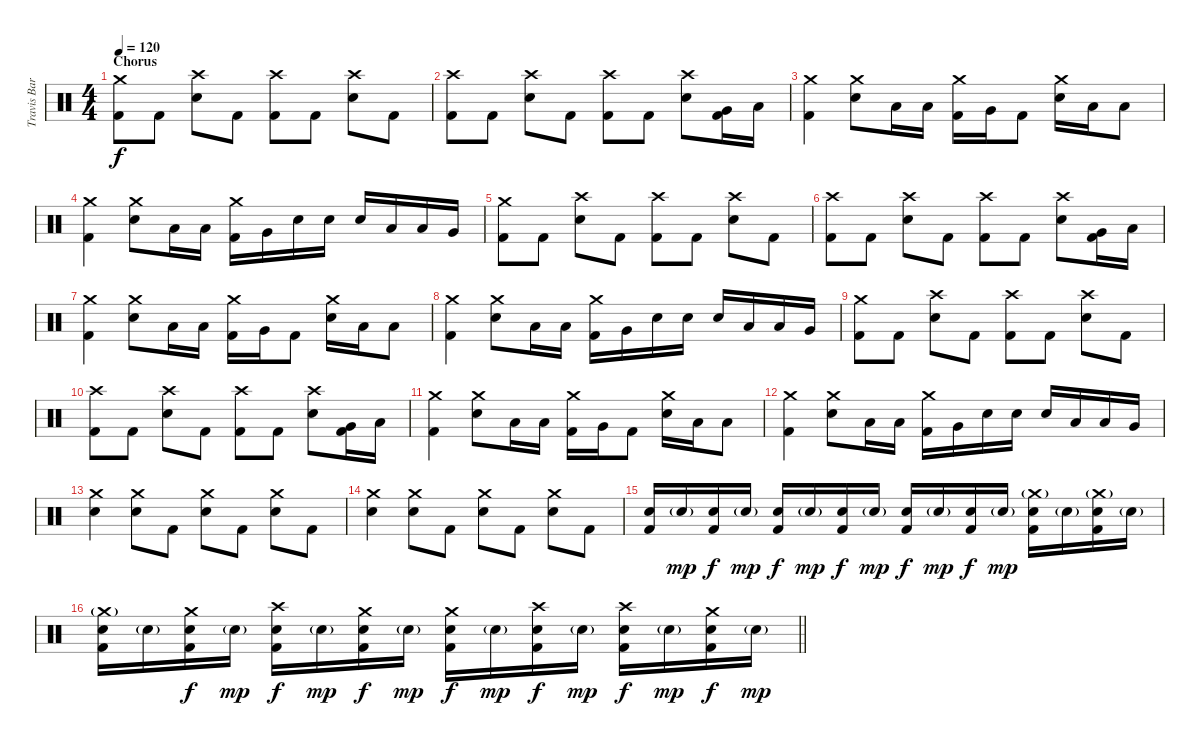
\track ("Travis Barker - Drums" "Travis Bar") {instrument percussion}
\staff {score}
\articulation defaults
\ts (4 4)
\section ("" "Chorus")
\tempo 120
\clef neutral
\ks c
("Crash medium (hit)" "Kick (hit) 2").8{dy f} "Kick (hit) 2".8 ("Crash high (hit)" "Electric Snare (hit)").8 "Kick (hit) 2".8 ("Crash high (hit)" "Kick (hit) 2").8 "Kick (hit) 2".8 ("Crash high (hit)" "Electric Snare (hit)").8 "Kick (hit) 2".8 |
("Crash high (hit)" "Kick (hit) 2").8 "Kick (hit) 2".8 ("Crash high (hit)" "Electric Snare (hit)").8 "Kick (hit) 2".8 ("Crash high (hit)" "Kick (hit) 2").8 "Kick (hit) 2".8 ("Crash high (hit)" "Electric Snare (hit)").8 ("Very Low Tom (hit)" "Kick (hit) 2").16 "Low Floor Tom (hit)".16 |
("Crash medium (hit)" "Kick (hit) 2").4 ("Crash medium (hit)" "Electric Snare (hit)").8 "Low Tom (hit)".16 "Low Tom (hit)".16 ("Crash medium (hit)" "Kick (hit) 2").16 "Very Low Tom (hit)".16 "Kick (hit) 2".8 ("Crash medium (hit)" "Electric Snare (hit)").16 "Low Tom (hit)".16 "Low Tom (hit)".8 |
("Crash medium (hit)" "Kick (hit) 2").4 ("Crash medium (hit)" "Electric Snare (hit)").8 "Low Tom (hit)".16 "Low Tom (hit)".16 ("Crash medium (hit)" "Kick (hit) 2").16 "Very Low Tom (hit)".16 "Electric Snare (hit)".16 "Electric Snare (hit)".16 "Electric Snare (hit)".16 "Low Tom (hit)".16 "Low Tom (hit)".16 "Very Low Tom (hit)".16 |
("Crash medium (hit)" "Kick (hit) 2").8 "Kick (hit) 2".8 ("Crash high (hit)" "Electric Snare (hit)").8 "Kick (hit) 2".8 ("Crash high (hit)" "Kick (hit) 2").8 "Kick (hit) 2".8 ("Crash high (hit)" "Electric Snare (hit)").8 "Kick (hit) 2".8 |
("Crash high (hit)" "Kick (hit) 2").8 "Kick (hit) 2".8 ("Crash high (hit)" "Electric Snare (hit)").8 "Kick (hit) 2".8 ("Crash high (hit)" "Kick (hit) 2").8 "Kick (hit) 2".8 ("Crash high (hit)" "Electric Snare (hit)").8 ("Very Low Tom (hit)" "Kick (hit) 2").16 "Low Floor Tom (hit)".16 |
("Crash medium (hit)" "Kick (hit) 2").4 ("Crash medium (hit)" "Electric Snare (hit)").8 "Low Tom (hit)".16 "Low Tom (hit)".16 ("Crash medium (hit)" "Kick (hit) 2").16 "Very Low Tom (hit)".16 "Kick (hit) 2".8 ("Crash medium (hit)" "Electric Snare (hit)").16 "Low Tom (hit)".16 "Low Tom (hit)".8 |
("Crash medium (hit)" "Kick (hit) 2").4 ("Crash medium (hit)" "Electric Snare (hit)").8 "Low Tom (hit)".16 "Low Tom (hit)".16 ("Crash medium (hit)" "Kick (hit) 2").16 "Very Low Tom (hit)".16 "Electric Snare (hit)".16 "Electric Snare (hit)".16 "Electric Snare (hit)".16 "Low Tom (hit)".16 "Low Tom (hit)".16 "Very Low Tom (hit)".16 |
("Crash medium (hit)" "Kick (hit) 2").8 "Kick (hit) 2".8 ("Crash high (hit)" "Electric Snare (hit)").8 "Kick (hit) 2".8 ("Crash high (hit)" "Kick (hit) 2").8 "Kick (hit) 2".8 ("Crash high (hit)" "Electric Snare (hit)").8 "Kick (hit) 2".8 |
("Crash high (hit)" "Kick (hit) 2").8 "Kick (hit) 2".8 ("Crash high (hit)" "Electric Snare (hit)").8 "Kick (hit) 2".8 ("Crash high (hit)" "Kick (hit) 2").8 "Kick (hit) 2".8 ("Crash high (hit)" "Electric Snare (hit)").8 ("Very Low Tom (hit)" "Kick (hit) 2").16 "Low Floor Tom (hit)".16 |
("Crash medium (hit)" "Kick (hit) 2").4 ("Crash medium (hit)" "Electric Snare (hit)").8 "Low Tom (hit)".16 "Low Tom (hit)".16 ("Crash medium (hit)" "Kick (hit) 2").16 "Very Low Tom (hit)".16 "Kick (hit) 2".8 ("Crash medium (hit)" "Electric Snare (hit)").16 "Low Tom (hit)".16 "Low Tom (hit)".8 |
("Crash medium (hit)" "Kick (hit) 2").4 ("Crash medium (hit)" "Electric Snare (hit)").8 "Low Tom (hit)".16 "Low Tom (hit)".16 ("Crash medium (hit)" "Kick (hit) 2").16 "Very Low Tom (hit)".16 "Electric Snare (hit)".16 "Electric Snare (hit)".16 "Electric Snare (hit)".16 "Low Tom (hit)".16 "Low Tom (hit)".16 "Very Low Tom (hit)".16 |
("Crash medium (hit)" "Electric Snare (hit)").4 ("Crash medium (hit)" "Electric Snare (hit)").8 "Kick (hit) 2".8 ("Crash medium (hit)" "Electric Snare (hit)").8 "Kick (hit) 2".8 ("Crash medium (hit)" "Electric Snare (hit)").8 "Kick (hit) 2".8 |
("Crash medium (hit)" "Electric Snare (hit)").4 ("Crash medium (hit)" "Electric Snare (hit)").8 "Kick (hit) 2".8 ("Crash medium (hit)" "Electric Snare (hit)").8 "Kick (hit) 2".8 ("Crash medium (hit)" "Electric Snare (hit)").8 "Kick (hit) 2".8 |
("Electric Snare (hit)" "Kick (hit) 2").16{volume 9} "Electric Snare (hit)"{g}.16{dy mp volume 12} ("Electric Snare (hit)" "Kick (hit) 2").16{dy f} "Electric Snare (hit)"{g}.16{dy mp} ("Electric Snare (hit)" "Kick (hit) 2").16{dy f} "Electric Snare (hit)"{g}.16{dy mp} ("Electric Snare (hit)" "Kick (hit) 2").16{dy f} "Electric Snare (hit)"{g}.16{dy mp} ("Electric Snare (hit)" "Kick (hit) 2").16{dy f} "Electric Snare (hit)"{g}.16{dy mp} ("Electric Snare (hit)" "Kick (hit) 2").16{dy f} "Electric Snare (hit)"{g}.16{dy mp} ("Crash medium (hit)"{g} "Electric Snare (hit)" "Kick (hit) 2").16 "Electric Snare (hit)"{g}.16 ("Crash medium (hit)"{g} "Electric Snare (hit)" "Kick (hit) 2").16 "Electric Snare (hit)"{g}.16 |
\barLineRight lightlight
("Crash medium (hit)"{g} "Electric Snare (hit)" "Kick (hit) 2").16 "Electric Snare (hit)"{g}.16 ("Crash medium (hit)" "Electric Snare (hit)" "Kick (hit) 2").16{dy f} "Electric Snare (hit)"{g}.16{dy mp} ("Crash high (hit)" "Electric Snare (hit)" "Kick (hit) 2").16{dy f} "Electric Snare (hit)"{g}.16{dy mp} ("Crash medium (hit)" "Electric Snare (hit)" "Kick (hit) 2").16{dy f} "Electric Snare (hit)"{g}.16{dy mp} ("Crash medium (hit)" "Electric Snare (hit)" "Kick (hit) 2").16{dy f} "Electric Snare (hit)"{g}.16{dy mp} ("Crash high (hit)" "Electric Snare (hit)" "Kick (hit) 2").16{dy f} "Electric Snare (hit)"{g}.16{dy mp} ("Crash high (hit)" "Electric Snare (hit)" "Kick (hit) 2").16{dy f} "Electric Snare (hit)"{g}.16{dy mp} ("Crash medium (hit)" "Electric Snare (hit)" "Kick (hit) 2").16{dy f} "Electric Snare (hit)"{g}.16{dy mp}
